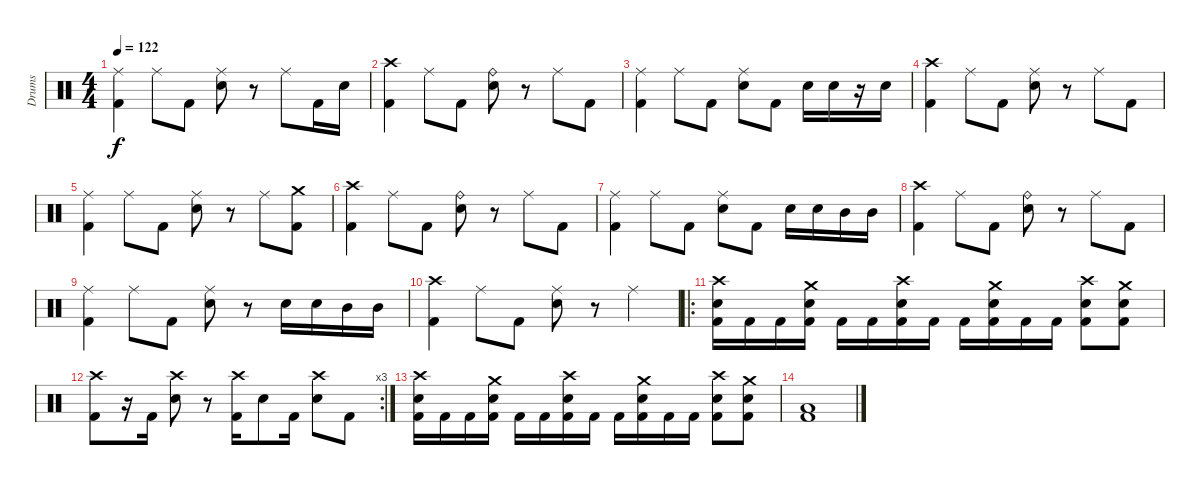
\track ("Drums" "Drums") {instrument percussion}
\staff {score}
\articulation defaults
\ts (4 4)
\tempo 122
\clef neutral
\ks c
("Ride (middle)" "Kick (hit) 2").4{dy f} "Ride (middle)".8 "Kick (hit) 2".8 ("Ride (middle)" "Electric Snare (hit)").8 r.8 "Ride (middle)".8 "Kick (hit) 2".16 "Electric Snare (hit)".16 |
("Crash high (hit)" "Kick (hit) 2").4 "Ride (middle)".8 "Kick (hit) 2".8 ("Ride (bell)" "Electric Snare (hit)").8 r.8 "Ride (middle)".8 "Kick (hit) 2".8 |
("Ride (middle)" "Kick (hit) 2").4 "Ride (middle)".8 "Kick (hit) 2".8 ("Ride (middle)" "Electric Snare (hit)").8 "Kick (hit) 2".8 "Electric Snare (hit)".16 "Electric Snare (hit)".16 r.16 "Electric Snare (hit)".16 |
("Crash high (hit)" "Kick (hit) 2").4 "Ride (middle)".8 "Kick (hit) 2".8 ("Ride (middle)" "Electric Snare (hit)").8 r.8 "Ride (middle)".8 "Kick (hit) 2".8 |
("Ride (middle)" "Kick (hit) 2").4 "Ride (middle)".8 "Kick (hit) 2".8 ("Ride (middle)" "Electric Snare (hit)").8 r.8 "Ride (middle)".8 ("Crash medium (hit)" "Kick (hit) 2").8 |
("Crash high (hit)" "Kick (hit) 2").4 "Ride (middle)".8 "Kick (hit) 2".8 ("Ride (bell)" "Electric Snare (hit)").8 r.8 "Ride (middle)".8 "Kick (hit) 2".8 |
("Ride (middle)" "Kick (hit) 2").4 "Ride (middle)".8 "Kick (hit) 2".8 ("Ride (middle)" "Electric Snare (hit)").8 "Kick (hit) 2".8 "Electric Snare (hit)".16 "Electric Snare (hit)".16 "Mid Tom (hit)".16 "Mid Tom (hit)".16 |
("Crash high (hit)" "Kick (hit) 2").4 "Ride (middle)".8 "Kick (hit) 2".8 ("Ride (bell)" "Electric Snare (hit)").8 r.8 "Ride (middle)".8 "Kick (hit) 2".8 |
("Ride (middle)" "Kick (hit) 2").4 "Ride (middle)".8 "Kick (hit) 2".8 ("Ride (middle)" "Electric Snare (hit)").8 r.8 "Electric Snare (hit)".16 "Electric Snare (hit)".16 "Mid Tom (hit)".16 "Mid Tom (hit)".16 |
("Crash high (hit)" "Kick (hit) 2").4 "Ride (middle)".8 "Kick (hit) 2".8 ("Ride (middle)" "Electric Snare (hit)").8 r.8 "Ride (middle)".4 |
\ro
("Crash high (hit)" "Electric Snare (hit)" "Kick (hit) 2").16 "Kick (hit) 2".16 "Kick (hit) 2".16 ("Crash medium (hit)" "Electric Snare (hit)" "Kick (hit) 2").16 "Kick (hit) 2".16 "Kick (hit) 2".16 ("Crash high (hit)" "Electric Snare (hit)" "Kick (hit) 2").16 "Kick (hit) 2".16 "Kick (hit) 2".16 ("Crash medium (hit)" "Electric Snare (hit)" "Kick (hit) 2").16 "Kick (hit) 2".16 "Kick (hit) 2".16 ("Crash high (hit)" "Electric Snare (hit)" "Kick (hit) 2").8 ("Crash medium (hit)" "Electric Snare (hit)" "Kick (hit) 2").8 |
\rc 3
("Crash high (hit)" "Kick (hit) 2").8 r.16 "Kick (hit) 2".16 ("Crash high (hit)" "Electric Snare (hit)").8 r.8 ("Crash high (hit)" "Kick (hit) 2").16 "Electric Snare (hit)".8 "Kick (hit) 2".16 ("Crash high (hit)" "Electric Snare (hit)").8 "Kick (hit) 2".8 |
("Crash high (hit)" "Electric Snare (hit)" "Kick (hit) 2").16 "Kick (hit) 2".16 "Kick (hit) 2".16 ("Crash medium (hit)" "Electric Snare (hit)" "Kick (hit) 2").16 "Kick (hit) 2".16 "Kick (hit) 2".16 ("Crash high (hit)" "Electric Snare (hit)" "Kick (hit) 2").16 "Kick (hit) 2".16 "Kick (hit) 2".16 ("Crash medium (hit)" "Electric Snare (hit)" "Kick (hit) 2").16 "Kick (hit) 2".16 "Kick (hit) 2".16 ("Crash high (hit)" "Electric Snare (hit)" "Kick (hit) 2").8 ("Crash medium (hit)" "Electric Snare (hit)" "Kick (hit) 2").8 |
("Low Floor Tom (hit)" "Kick (hit) 2").1
